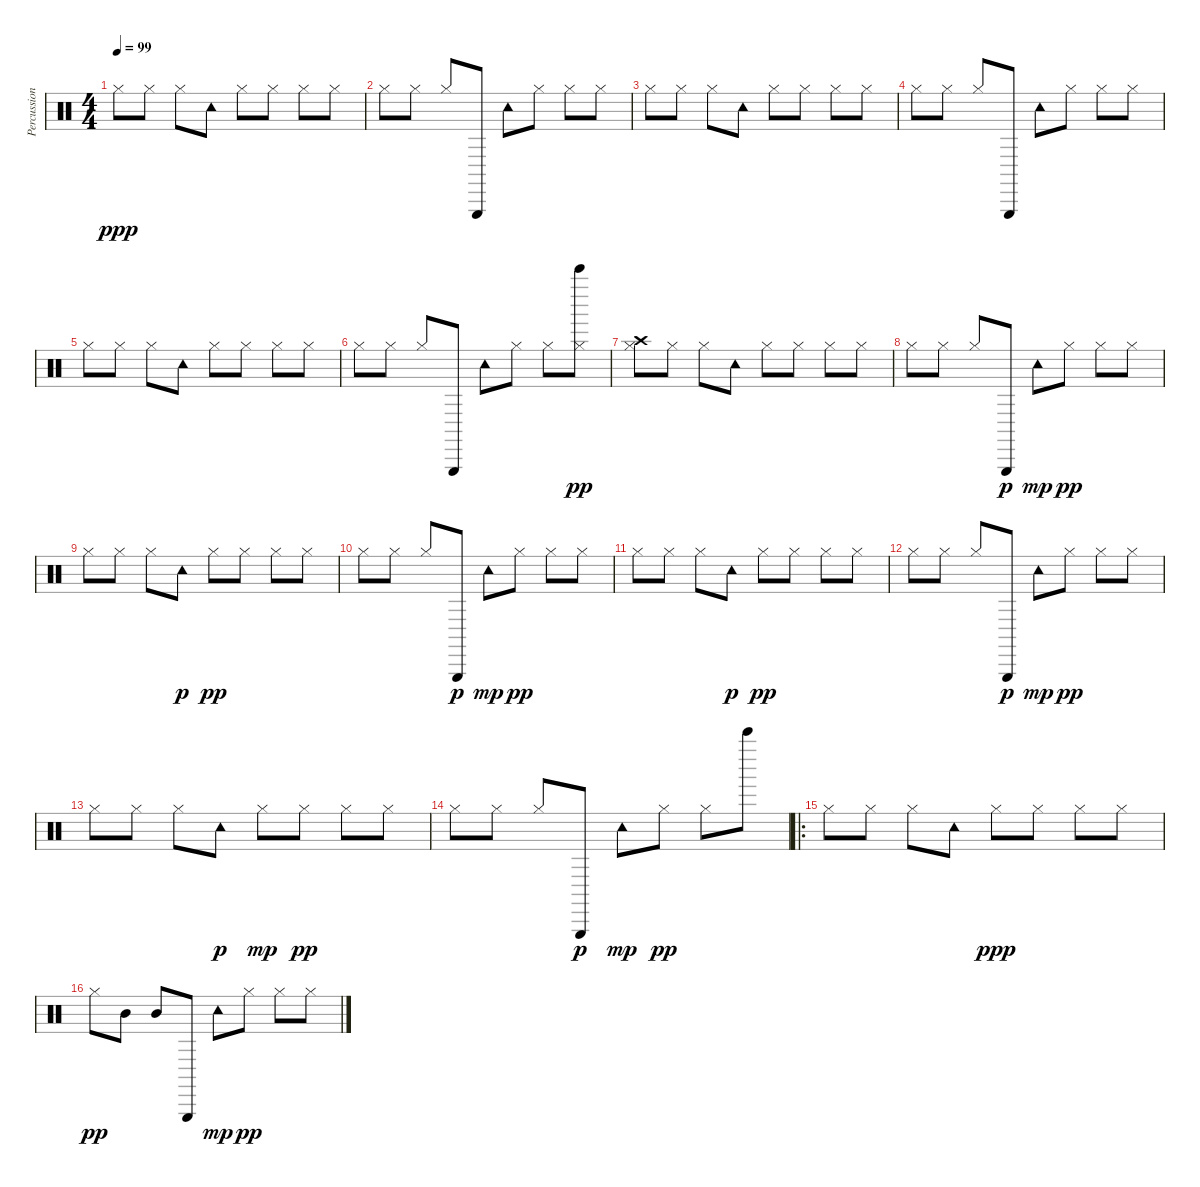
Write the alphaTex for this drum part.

\track ("Percussion" "Percussion") {instrument percussion}
\staff {score}
\articulation defaults
\ts (4 4)
\tempo 99
\clef neutral
\ks c "Hi-Hat (closed)".8{dy ppp} "Hi-Hat (closed)".8 "Hi-Hat (closed)".8 "Tambourine (hit)".8 "Hi-Hat (closed)".8 "Hi-Hat (closed)".8 "Hi-Hat (closed)".8 "Hi-Hat (closed)".8
|
"Hi-Hat (closed)".8 "Hi-Hat (closed)".8 "Hi-Hat (closed)".8 "Triangle (hit)".8 "Tambourine (hit)".8 "Hi-Hat (closed)".8 "Hi-Hat (closed)".8 "Hi-Hat (closed)".8 |
"Hi-Hat (closed)".8 "Hi-Hat (closed)".8 "Hi-Hat (closed)".8 "Tambourine (hit)".8 "Hi-Hat (closed)".8 "Hi-Hat (closed)".8 "Hi-Hat (closed)".8 "Hi-Hat (closed)".8 |
"Hi-Hat (closed)".8 "Hi-Hat (closed)".8 "Hi-Hat (closed)".8 "Triangle (hit)".8 "Tambourine (hit)".8 "Hi-Hat (closed)".8 "Hi-Hat (closed)".8 "Hi-Hat (closed)".8 |
"Hi-Hat (closed)".8 "Hi-Hat (closed)".8 "Hi-Hat (closed)".8 "Tambourine (hit)".8 "Hi-Hat (closed)".8 "Hi-Hat (closed)".8 "Hi-Hat (closed)".8 "Hi-Hat (closed)".8 |
"Hi-Hat (closed)".8 "Hi-Hat (closed)".8 "Hi-Hat (closed)".8 "Triangle (hit)".8 "Tambourine (hit)".8 "Hi-Hat (closed)".8 "Hi-Hat (closed)".8 ("Hi-Hat (closed)" "Bell Tree (hit)").8{dy pp} |
("Hi-Hat (closed)" "Crash high (hit)").8 "Hi-Hat (closed)".8 "Hi-Hat (closed)".8 "Tambourine (hit)".8 "Hi-Hat (closed)".8 "Hi-Hat (closed)".8 "Hi-Hat (closed)".8 "Hi-Hat (closed)".8 |
"Hi-Hat (closed)".8 "Hi-Hat (closed)".8 "Hi-Hat (closed)".8 "Triangle (hit)".8{dy p} "Tambourine (hit)".8{dy mp} "Hi-Hat (closed)".8{dy pp} "Hi-Hat (closed)".8 "Hi-Hat (closed)".8 |
"Hi-Hat (closed)".8 "Hi-Hat (closed)".8 "Hi-Hat (closed)".8 "Tambourine (hit)".8{dy p} "Hi-Hat (closed)".8{dy pp} "Hi-Hat (closed)".8 "Hi-Hat (closed)".8 "Hi-Hat (closed)".8 |
"Hi-Hat (closed)".8 "Hi-Hat (closed)".8 "Hi-Hat (closed)".8 "Triangle (hit)".8{dy p} "Tambourine (hit)".8{dy mp} "Hi-Hat (closed)".8{dy pp} "Hi-Hat (closed)".8 "Hi-Hat (closed)".8 |
"Hi-Hat (closed)".8 "Hi-Hat (closed)".8 "Hi-Hat (closed)".8 "Tambourine (hit)".8{dy p} "Hi-Hat (closed)".8{dy pp} "Hi-Hat (closed)".8 "Hi-Hat (closed)".8 "Hi-Hat (closed)".8 |
"Hi-Hat (closed)".8 "Hi-Hat (closed)".8 "Hi-Hat (closed)".8 "Triangle (hit)".8{dy p} "Tambourine (hit)".8{dy mp} "Hi-Hat (closed)".8{dy pp} "Hi-Hat (closed)".8 "Hi-Hat (closed)".8 |
"Hi-Hat (closed)".8 "Hi-Hat (closed)".8 "Hi-Hat (closed)".8 "Tambourine (hit)".8{dy p} "Hi-Hat (closed)".8{dy mp} "Hi-Hat (closed)".8{dy pp} "Hi-Hat (closed)".8 "Hi-Hat (closed)".8 |
"Hi-Hat (closed)".8 "Hi-Hat (closed)".8 "Hi-Hat (closed)".8 "Triangle (hit)".8{dy p} "Tambourine (hit)".8{dy mp} "Hi-Hat (closed)".8{dy pp} "Hi-Hat (closed)".8 "Bell Tree (hit)".8 |
\ro "Hi-Hat (closed)".8 "Hi-Hat (closed)".8 "Hi-Hat (closed)".8 "Tambourine (hit)".8 "Hi-Hat (closed)".8{dy ppp} "Hi-Hat (closed)".8 "Hi-Hat (closed)".8 "Hi-Hat (closed)".8
|
"Hi-Hat (closed)".8{dy pp} "Mid Tom (hit)".8 "Mid Tom (hit)".8 "Triangle (hit)".8 "Tambourine (hit)".8{dy mp} "Hi-Hat (closed)".8{dy pp} "Hi-Hat (closed)".8 "Hi-Hat (closed)".8
